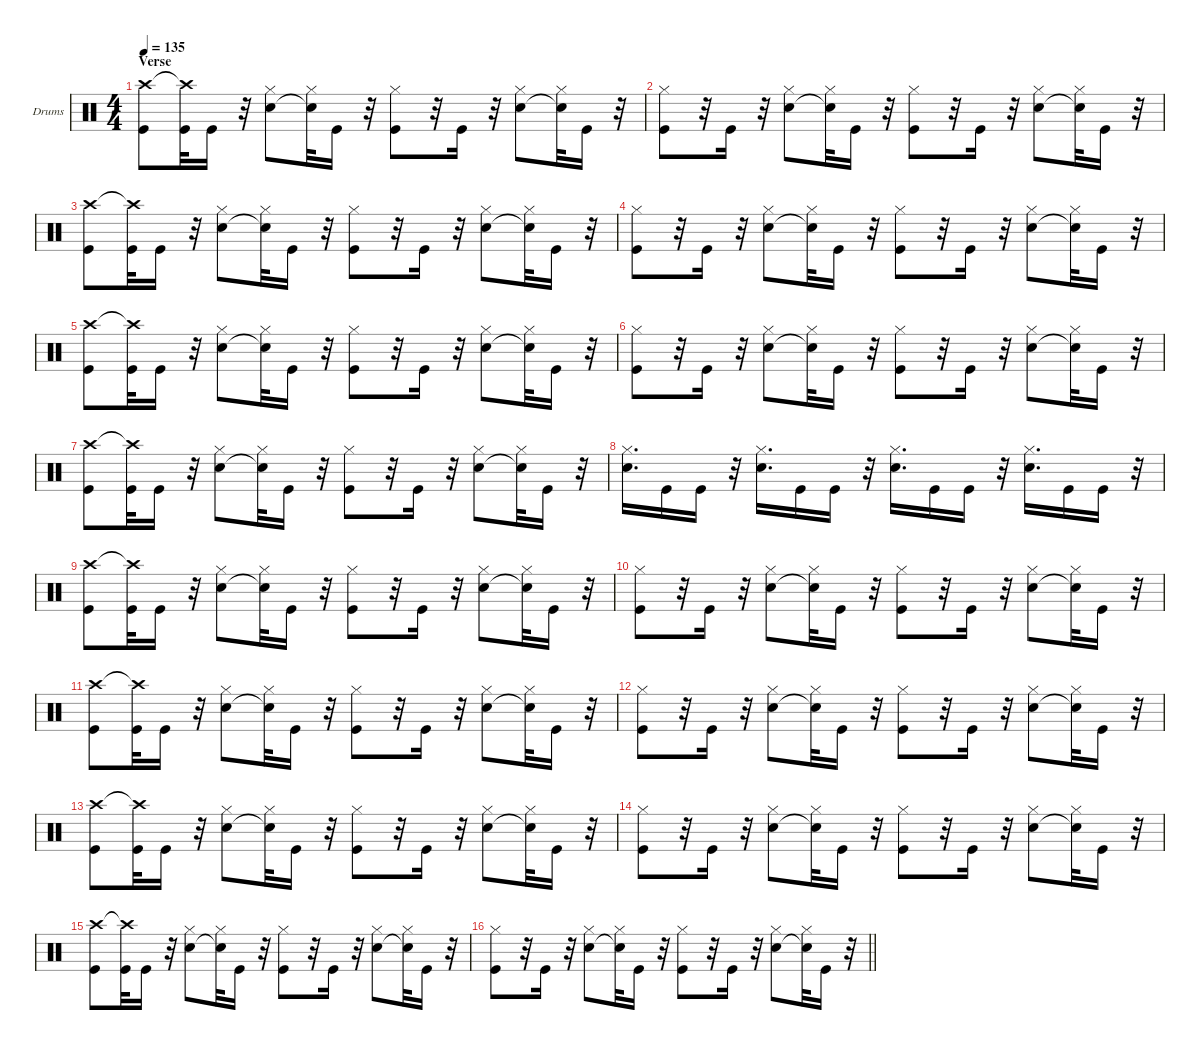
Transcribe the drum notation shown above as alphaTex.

\hideDynamics
\bracketExtendMode groupsimilarinstruments
\firstSystemTrackNameOrientation horizontal
\otherSystemsTrackNameOrientation horizontal
\track ("Drumkit" "Drums") {solo instrument percussion}
\staff {score}
\articulation defaults
\ts (4 4)
\section ("" "Verse")
\tempo 135
\clef neutral
\scale
0.333333
\ks c
("Crash high (hit)" "Kick (hit)").8{dy mf} ("Crash high (hit)"{t} "Kick (hit)").32 "Kick (hit)".16 r.32 ("Hi-Hat (closed)" "Snare (hit) 2").8 ("Hi-Hat (closed)" "Snare (hit) 2"{t}).32 "Kick (hit)".16 r.32 ("Kick (hit)" "Hi-Hat (closed)").8 r.32 "Kick (hit)".16 r.32 ("Hi-Hat (closed)" "Snare (hit) 2").8 ("Hi-Hat (closed)" "Snare (hit) 2"{t}).32 "Kick (hit)".16 r.32 |
\scale
0.333333 ("Kick (hit)" "Hi-Hat (closed)").8 r.32 "Kick (hit)".16 r.32 ("Hi-Hat (closed)" "Snare (hit) 2").8 ("Hi-Hat (closed)" "Snare (hit) 2"{t}).32 "Kick (hit)".16 r.32 ("Kick (hit)" "Hi-Hat (closed)").8 r.32 "Kick (hit)".16 r.32 ("Hi-Hat (closed)" "Snare (hit) 2").8 ("Hi-Hat (closed)" "Snare (hit) 2"{t}).32 "Kick (hit)".16 r.32 |
\scale
0.333333 ("Crash high (hit)" "Kick (hit)").8 ("Crash high (hit)"{t} "Kick (hit)").32 "Kick (hit)".16 r.32 ("Hi-Hat (closed)" "Snare (hit) 2").8 ("Hi-Hat (closed)" "Snare (hit) 2"{t}).32 "Kick (hit)".16 r.32 ("Kick (hit)" "Hi-Hat (closed)").8 r.32 "Kick (hit)".16 r.32 ("Hi-Hat (closed)" "Snare (hit) 2").8 ("Hi-Hat (closed)" "Snare (hit) 2"{t}).32 "Kick (hit)".16 r.32 |
\scale
0.333333 ("Kick (hit)" "Hi-Hat (closed)").8 r.32 "Kick (hit)".16 r.32 ("Hi-Hat (closed)" "Snare (hit) 2").8 ("Hi-Hat (closed)" "Snare (hit) 2"{t}).32 "Kick (hit)".16 r.32 ("Kick (hit)" "Hi-Hat (closed)").8 r.32 "Kick (hit)".16 r.32 ("Hi-Hat (closed)" "Snare (hit) 2").8 ("Hi-Hat (closed)" "Snare (hit) 2"{t}).32 "Kick (hit)".16 r.32 |
\scale
0.333333 ("Crash high (hit)" "Kick (hit)").8 ("Crash high (hit)"{t} "Kick (hit)").32 "Kick (hit)".16 r.32 ("Hi-Hat (closed)" "Snare (hit) 2").8 ("Hi-Hat (closed)" "Snare (hit) 2"{t}).32 "Kick (hit)".16 r.32 ("Kick (hit)" "Hi-Hat (closed)").8 r.32 "Kick (hit)".16 r.32 ("Hi-Hat (closed)" "Snare (hit) 2").8 ("Hi-Hat (closed)" "Snare (hit) 2"{t}).32 "Kick (hit)".16 r.32 |
\scale
0.333333 ("Kick (hit)" "Hi-Hat (closed)").8 r.32 "Kick (hit)".16 r.32 ("Hi-Hat (closed)" "Snare (hit) 2").8 ("Hi-Hat (closed)" "Snare (hit) 2"{t}).32 "Kick (hit)".16 r.32 ("Kick (hit)" "Hi-Hat (closed)").8 r.32 "Kick (hit)".16 r.32 ("Hi-Hat (closed)" "Snare (hit) 2").8 ("Hi-Hat (closed)" "Snare (hit) 2"{t}).32 "Kick (hit)".16 r.32 |
\scale
0.333333 ("Crash high (hit)" "Kick (hit)").8 ("Crash high (hit)"{t} "Kick (hit)").32 "Kick (hit)".16 r.32 ("Hi-Hat (closed)" "Snare (hit) 2").8 ("Hi-Hat (closed)" "Snare (hit) 2"{t}).32 "Kick (hit)".16 r.32 ("Kick (hit)" "Hi-Hat (closed)").8 r.32 "Kick (hit)".16 r.32 ("Hi-Hat (closed)" "Snare (hit) 2").8 ("Hi-Hat (closed)" "Snare (hit) 2"{t}).32 "Kick (hit)".16 r.32 |
\scale
0.333333 ("Hi-Hat (closed)" "Snare (hit) 2").16{d} "Kick (hit)".16 "Kick (hit)".16 r.32 ("Hi-Hat (closed)" "Snare (hit) 2").16{d} "Kick (hit)".16 "Kick (hit)".16 r.32 ("Hi-Hat (closed)" "Snare (hit) 2").16{d} "Kick (hit)".16 "Kick (hit)".16 r.32 ("Hi-Hat (closed)" "Snare (hit) 2").16{d} "Kick (hit)".16 "Kick (hit)".16 r.32 |
\scale
0.333333 ("Crash high (hit)" "Kick (hit)").8 ("Crash high (hit)"{t} "Kick (hit)").32 "Kick (hit)".16 r.32 ("Hi-Hat (closed)" "Snare (hit) 2").8 ("Hi-Hat (closed)" "Snare (hit) 2"{t}).32 "Kick (hit)".16 r.32 ("Kick (hit)" "Hi-Hat (closed)").8 r.32 "Kick (hit)".16 r.32 ("Hi-Hat (closed)" "Snare (hit) 2").8 ("Hi-Hat (closed)" "Snare (hit) 2"{t}).32 "Kick (hit)".16 r.32 |
\scale
0.333333 ("Hi-Hat (closed)" "Kick (hit)").8 r.32 "Kick (hit)".16 r.32 ("Hi-Hat (closed)" "Snare (hit) 2").8 ("Hi-Hat (closed)" "Snare (hit) 2"{t}).32 "Kick (hit)".16 r.32 ("Hi-Hat (closed)" "Kick (hit)").8 r.32 "Kick (hit)".16 r.32 ("Hi-Hat (closed)" "Snare (hit) 2").8 ("Hi-Hat (closed)" "Snare (hit) 2"{t}).32 "Kick (hit)".16 r.32 |
\scale
0.333333 ("Crash high (hit)" "Kick (hit)").8 ("Crash high (hit)"{t} "Kick (hit)").32 "Kick (hit)".16 r.32 ("Hi-Hat (closed)" "Snare (hit) 2").8 ("Hi-Hat (closed)" "Snare (hit) 2"{t}).32 "Kick (hit)".16 r.32 ("Kick (hit)" "Hi-Hat (closed)").8 r.32 "Kick (hit)".16 r.32 ("Hi-Hat (closed)" "Snare (hit) 2").8 ("Hi-Hat (closed)" "Snare (hit) 2"{t}).32 "Kick (hit)".16 r.32 |
\scale
0.333333 ("Hi-Hat (closed)" "Kick (hit)").8 r.32 "Kick (hit)".16 r.32 ("Hi-Hat (closed)" "Snare (hit) 2").8 ("Hi-Hat (closed)" "Snare (hit) 2"{t}).32 "Kick (hit)".16 r.32 ("Hi-Hat (closed)" "Kick (hit)").8 r.32 "Kick (hit)".16 r.32 ("Hi-Hat (closed)" "Snare (hit) 2").8 ("Hi-Hat (closed)" "Snare (hit) 2"{t}).32 "Kick (hit)".16 r.32 |
\scale
0.333333 ("Crash high (hit)" "Kick (hit)").8 ("Crash high (hit)"{t} "Kick (hit)").32 "Kick (hit)".16 r.32 ("Hi-Hat (closed)" "Snare (hit) 2").8 ("Hi-Hat (closed)" "Snare (hit) 2"{t}).32 "Kick (hit)".16 r.32 ("Kick (hit)" "Hi-Hat (closed)").8 r.32 "Kick (hit)".16 r.32 ("Hi-Hat (closed)" "Snare (hit) 2").8 ("Hi-Hat (closed)" "Snare (hit) 2"{t}).32 "Kick (hit)".16 r.32 |
\scale
0.333333 ("Hi-Hat (closed)" "Kick (hit)").8 r.32 "Kick (hit)".16 r.32 ("Hi-Hat (closed)" "Snare (hit) 2").8 ("Hi-Hat (closed)" "Snare (hit) 2"{t}).32 "Kick (hit)".16 r.32 ("Hi-Hat (closed)" "Kick (hit)").8 r.32 "Kick (hit)".16 r.32 ("Hi-Hat (closed)" "Snare (hit) 2").8 ("Hi-Hat (closed)" "Snare (hit) 2"{t}).32 "Kick (hit)".16 r.32 |
\scale
0.333333 ("Crash high (hit)" "Kick (hit)").8 ("Crash high (hit)"{t} "Kick (hit)").32 "Kick (hit)".16 r.32 ("Hi-Hat (closed)" "Snare (hit) 2").8 ("Hi-Hat (closed)" "Snare (hit) 2"{t}).32 "Kick (hit)".16 r.32 ("Kick (hit)" "Hi-Hat (closed)").8 r.32 "Kick (hit)".16 r.32 ("Hi-Hat (closed)" "Snare (hit) 2").8 ("Hi-Hat (closed)" "Snare (hit) 2"{t}).32 "Kick (hit)".16 r.32 |
\scale
0.333333
\barLineRight lightlight
("Hi-Hat (closed)" "Kick (hit)").8 r.32 "Kick (hit)".16 r.32 ("Hi-Hat (closed)" "Snare (hit) 2").8 ("Hi-Hat (closed)" "Snare (hit) 2"{t}).32 "Kick (hit)".16 r.32 ("Hi-Hat (closed)" "Kick (hit)").8 r.32 "Kick (hit)".16 r.32 ("Hi-Hat (closed)" "Snare (hit) 2").8 ("Hi-Hat (closed)" "Snare (hit) 2"{t}).32 "Kick (hit)".16 r.32
